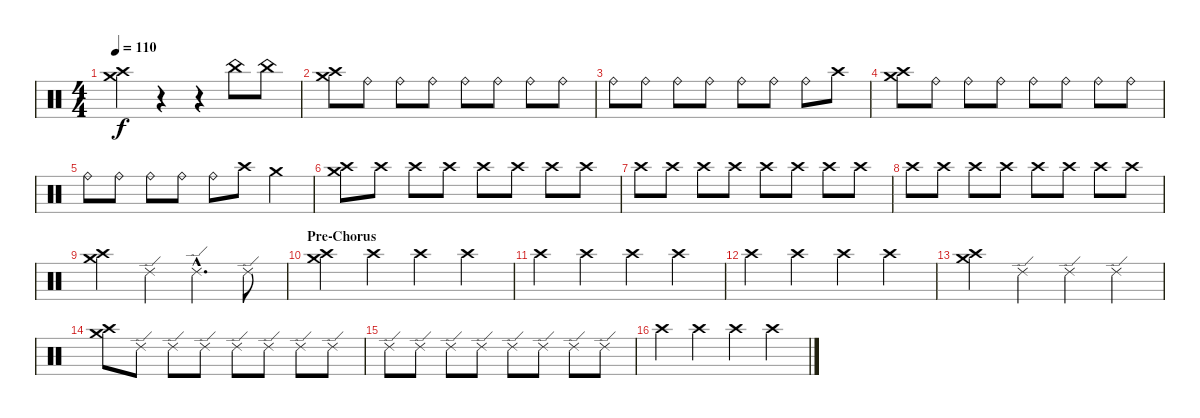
\track "" {instrument percussion}
\staff {score}
\articulation defaults
\ts (4 4)
\tempo 110
\clef neutral
\ks c
("Crash high (hit)" "Crash medium (hit)").4{dy f} r.4 r.4 "China (hit)".8 "China (hit)".8 |
("Crash medium (hit)" "Crash high (hit)").8 "Ride (bell)".8 "Ride (bell)".8 "Ride (bell)".8 "Ride (bell)".8 "Ride (bell)".8 "Ride (bell)".8 "Ride (bell)".8 |
"Ride (bell)".8 "Ride (bell)".8 "Ride (bell)".8 "Ride (bell)".8 "Ride (bell)".8 "Ride (bell)".8 "Ride (bell)".8 "Crash high (hit)".8 |
("Crash medium (hit)" "Crash high (hit)").8 "Ride (bell)".8 "Ride (bell)".8 "Ride (bell)".8 "Ride (bell)".8 "Ride (bell)".8 "Ride (bell)".8 "Ride (bell)".8 |
"Ride (bell)".8 "Ride (bell)".8 "Ride (bell)".8 "Ride (bell)".8 "Ride (bell)".8 "Crash high (hit)".8 "Crash medium (hit)".4 |
("Crash medium (hit)" "Crash high (hit)").8 "Crash high (hit)".8 "Crash high (hit)".8 "Crash high (hit)".8 "Crash high (hit)".8 "Crash high (hit)".8 "Crash high (hit)".8 "Crash high (hit)".8 |
"Crash high (hit)".8 "Crash high (hit)".8 "Crash high (hit)".8 "Crash high (hit)".8 "Crash high (hit)".8 "Crash high (hit)".8 "Crash high (hit)".8 "Crash high (hit)".8 |
"Crash high (hit)".8 "Crash high (hit)".8 "Crash high (hit)".8 "Crash high (hit)".8 "Crash high (hit)".8 "Crash high (hit)".8 "Crash high (hit)".8 "Crash high (hit)".8 |
("Crash medium (hit)" "Crash high (hit)").4 "Ride (edge) 2".4 "Ride (edge) 2"{hac}.4{d} "Ride (edge) 2".8 |
\section ("" "Pre-Chorus")
("Crash medium (hit)" "Crash high (hit)").4 "Crash high (hit)".4 "Crash high (hit)".4 "Crash high (hit)".4 |
"Crash high (hit)".4 "Crash high (hit)".4 "Crash high (hit)".4 "Crash high (hit)".4 |
"Crash high (hit)".4 "Crash high (hit)".4 "Crash high (hit)".4 "Crash high (hit)".4 |
("Crash medium (hit)" "Crash high (hit)").4 "Ride (edge) 2".4 "Ride (edge) 2".4 "Ride (edge) 2".4 |
("Crash medium (hit)" "Crash high (hit)").8 "Ride (edge) 2".8 "Ride (edge) 2".8 "Ride (edge) 2".8 "Ride (edge) 2".8 "Ride (edge) 2".8 "Ride (edge) 2".8 "Ride (edge) 2".8 |
"Ride (edge) 2".8 "Ride (edge) 2".8 "Ride (edge) 2".8 "Ride (edge) 2".8 "Ride (edge) 2".8 "Ride (edge) 2".8 "Ride (edge) 2".8 "Ride (edge) 2".8 |
"Crash high (hit)".4 "Crash high (hit)".4 "Crash high (hit)".4 "Crash high (hit)".4
